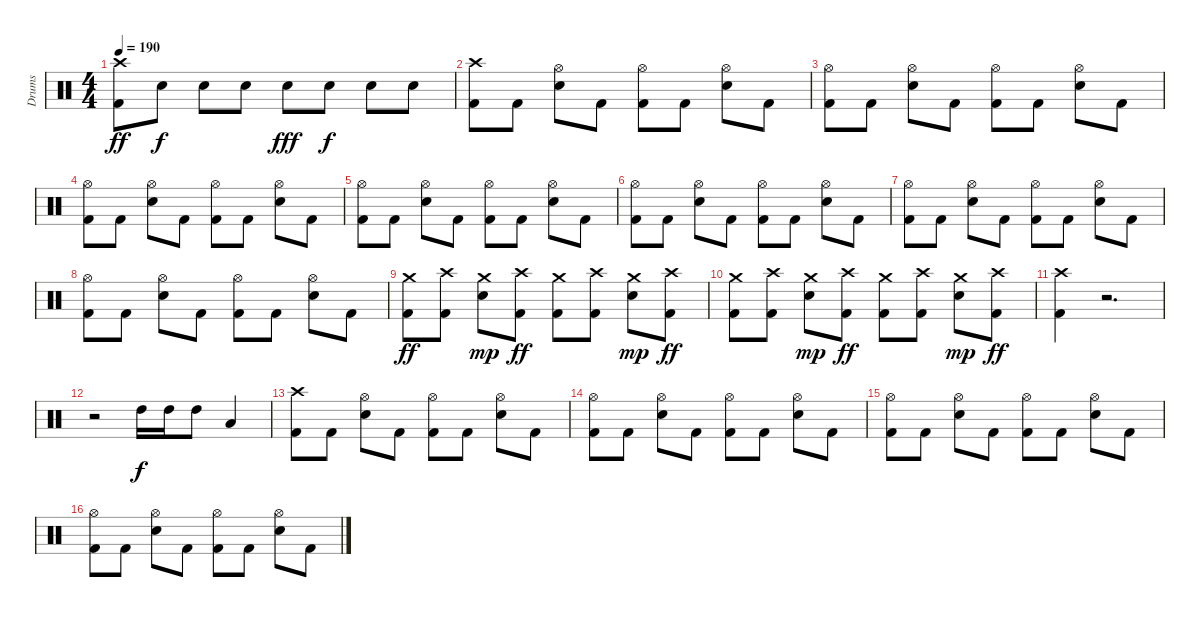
\track ("Drums" "Drums") {instrument percussion}
\staff {score}
\articulation defaults
\ts (4 4)
\tempo 190
\clef neutral
\ks c
("Kick (hit) 2" "Crash high (hit)").8{dy ff} "Snare (hit) 2".8{dy f} "Snare (hit) 2".8 "Snare (hit) 2".8 "Snare (hit) 2".8{dy fff} "Snare (hit) 2".8{dy f} "Snare (hit) 2".8 "Snare (hit) 2".8 |
("Kick (hit) 2" "Crash high (hit)").8 "Kick (hit) 2".8 ("Snare (hit) 2" "Hi-Hat (open)").8 "Kick (hit) 2".8 ("Kick (hit) 2" "Hi-Hat (open)").8 "Kick (hit) 2".8 ("Snare (hit) 2" "Hi-Hat (open)").8 "Kick (hit) 2".8 |
("Kick (hit) 2" "Hi-Hat (open)").8 "Kick (hit) 2".8 ("Snare (hit) 2" "Hi-Hat (open)").8 "Kick (hit) 2".8 ("Kick (hit) 2" "Hi-Hat (open)").8 "Kick (hit) 2".8 ("Snare (hit) 2" "Hi-Hat (open)").8 "Kick (hit) 2".8 |
("Kick (hit) 2" "Hi-Hat (open)").8 "Kick (hit) 2".8 ("Snare (hit) 2" "Hi-Hat (open)").8 "Kick (hit) 2".8 ("Kick (hit) 2" "Hi-Hat (open)").8 "Kick (hit) 2".8 ("Snare (hit) 2" "Hi-Hat (open)").8 "Kick (hit) 2".8 |
("Kick (hit) 2" "Hi-Hat (open)").8 "Kick (hit) 2".8 ("Snare (hit) 2" "Hi-Hat (open)").8 "Kick (hit) 2".8 ("Kick (hit) 2" "Hi-Hat (open)").8 "Kick (hit) 2".8 ("Snare (hit) 2" "Hi-Hat (open)").8 "Kick (hit) 2".8 |
("Kick (hit) 2" "Hi-Hat (open)").8 "Kick (hit) 2".8 ("Snare (hit) 2" "Hi-Hat (open)").8 "Kick (hit) 2".8 ("Kick (hit) 2" "Hi-Hat (open)").8 "Kick (hit) 2".8 ("Snare (hit) 2" "Hi-Hat (open)").8 "Kick (hit) 2".8 |
("Kick (hit) 2" "Hi-Hat (open)").8 "Kick (hit) 2".8 ("Snare (hit) 2" "Hi-Hat (open)").8 "Kick (hit) 2".8 ("Kick (hit) 2" "Hi-Hat (open)").8 "Kick (hit) 2".8 ("Snare (hit) 2" "Hi-Hat (open)").8 "Kick (hit) 2".8 |
("Kick (hit) 2" "Hi-Hat (open)").8 "Kick (hit) 2".8 ("Snare (hit) 2" "Hi-Hat (open)").8 "Kick (hit) 2".8 ("Kick (hit) 2" "Hi-Hat (open)").8 "Kick (hit) 2".8 ("Snare (hit) 2" "Hi-Hat (open)").8 "Kick (hit) 2".8 |
("Kick (hit) 2" "Crash medium (hit)").8{dy ff} ("Kick (hit) 2" "Crash high (hit)").8 ("Snare (hit) 2" "Crash medium (hit)").8{dy mp} ("Kick (hit) 2" "Crash high (hit)").8{dy ff} ("Kick (hit) 2" "Crash medium (hit)").8 ("Kick (hit) 2" "Crash high (hit)").8 ("Snare (hit) 2" "Crash medium (hit)").8{dy mp} ("Kick (hit) 2" "Crash high (hit)").8{dy ff} |
("Kick (hit) 2" "Crash medium (hit)").8 ("Kick (hit) 2" "Crash high (hit)").8 ("Snare (hit) 2" "Crash medium (hit)").8{dy mp} ("Kick (hit) 2" "Crash high (hit)").8{dy ff} ("Kick (hit) 2" "Crash medium (hit)").8 ("Kick (hit) 2" "Crash high (hit)").8 ("Snare (hit) 2" "Crash medium (hit)").8{dy mp} ("Kick (hit) 2" "Crash high (hit)").8{dy ff} |
("Kick (hit) 2" "Crash high (hit)").4 r.2{d} |
r.2 "High Tom (hit)".16{dy f} "High Tom (hit)".16 "High Tom (hit)".8 "Low Tom (hit)".4 |
("Kick (hit) 2" "Crash high (hit)").8 "Kick (hit) 2".8 ("Snare (hit) 2" "Hi-Hat (open)").8 "Kick (hit) 2".8 ("Kick (hit) 2" "Hi-Hat (open)").8 "Kick (hit) 2".8 ("Snare (hit) 2" "Hi-Hat (open)").8 "Kick (hit) 2".8 |
("Kick (hit) 2" "Hi-Hat (open)").8 "Kick (hit) 2".8 ("Snare (hit) 2" "Hi-Hat (open)").8 "Kick (hit) 2".8 ("Kick (hit) 2" "Hi-Hat (open)").8 "Kick (hit) 2".8 ("Snare (hit) 2" "Hi-Hat (open)").8 "Kick (hit) 2".8 |
("Kick (hit) 2" "Hi-Hat (open)").8 "Kick (hit) 2".8 ("Snare (hit) 2" "Hi-Hat (open)").8 "Kick (hit) 2".8 ("Kick (hit) 2" "Hi-Hat (open)").8 "Kick (hit) 2".8 ("Snare (hit) 2" "Hi-Hat (open)").8 "Kick (hit) 2".8 |
("Kick (hit) 2" "Hi-Hat (open)").8 "Kick (hit) 2".8 ("Snare (hit) 2" "Hi-Hat (open)").8 "Kick (hit) 2".8 ("Kick (hit) 2" "Hi-Hat (open)").8 "Kick (hit) 2".8 ("Snare (hit) 2" "Hi-Hat (open)").8 "Kick (hit) 2".8
